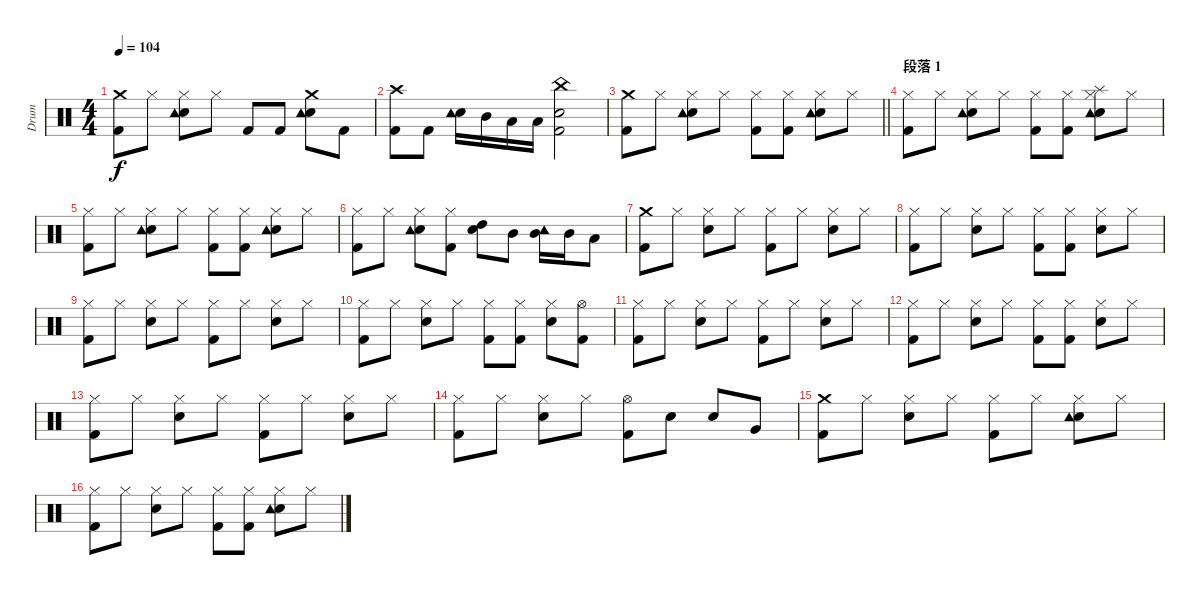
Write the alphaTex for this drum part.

\track ("Drum" "Drum") {instrument percussion}
\staff {score}
\articulation defaults
\ts (4 4)
\tempo 104
\clef neutral
\ks c
("Crash medium (hit)" "Kick (hit) 2").8{dy f} "Hi-Hat (closed)".8 ("Snare (hit) 2" "Hi-Hat (closed)" "Tambourine (hit)").8 "Hi-Hat (closed)".8 "Kick (hit) 2".8 "Kick (hit) 2".8 ("Snare (hit) 2" "Crash medium (hit)" "Tambourine (hit)").8 "Kick (hit) 2".8 |
("Crash high (hit)" "Kick (hit) 2").8 "Kick (hit) 2".8 ("Snare (hit) 2" "Tambourine (hit)").16 "Mid Tom (hit)".16 "Low Tom (hit)".16 "Low Tom (hit)".16 ("Snare (hit) 2" "China (hit)" "Kick (hit) 2").2 |
\barLineRight lightlight
("Crash medium (hit)" "Kick (hit) 2").8 "Hi-Hat (closed)".8 ("Snare (hit) 2" "Hi-Hat (closed)" "Tambourine (hit)").8 "Hi-Hat (closed)".8 ("Hi-Hat (closed)" "Kick (hit) 2").8 ("Hi-Hat (closed)" "Kick (hit) 2").8 ("Snare (hit) 2" "Hi-Hat (closed)" "Tambourine (hit)").8 "Hi-Hat (closed)".8 |
\section ("" "段落 1")
("Hi-Hat (closed)" "Kick (hit) 2").8 "Hi-Hat (closed)".8 ("Snare (hit) 2" "Hi-Hat (closed)" "Tambourine (hit)").8 "Hi-Hat (closed)".8 ("Hi-Hat (closed)" "Kick (hit) 2").8 ("Hi-Hat (closed)" "Kick (hit) 2").8 ("Snare (hit) 2" "Hi-Hat (closed)" "Tambourine (hit)" "Splash (hit)").8 "Hi-Hat (closed)".8 |
("Hi-Hat (closed)" "Kick (hit) 2").8 "Hi-Hat (closed)".8 ("Snare (hit) 2" "Hi-Hat (closed)" "Tambourine (hit)").8 "Hi-Hat (closed)".8 ("Hi-Hat (closed)" "Kick (hit) 2").8 ("Hi-Hat (closed)" "Kick (hit) 2").8 ("Snare (hit) 2" "Hi-Hat (closed)" "Tambourine (hit)").8 "Hi-Hat (closed)".8 |
("Hi-Hat (closed)" "Kick (hit) 2").8 "Hi-Hat (closed)".8 ("Snare (hit) 2" "Hi-Hat (closed)" "Tambourine (hit)").8 ("Hi-Hat (closed)" "Kick (hit) 2").8 ("High Tom (hit)" "Snare (hit) 2").8 "Mid Tom (hit)".8 ("Mid Tom (hit)" "Tambourine (hit)").16 "Mid Tom (hit)".16 "Low Tom (hit)".8 |
("Crash medium (hit)" "Kick (hit) 2").8 "Hi-Hat (closed)".8 ("Snare (hit) 2" "Hi-Hat (closed)").8 "Hi-Hat (closed)".8 ("Hi-Hat (closed)" "Kick (hit) 2").8 "Hi-Hat (closed)".8 ("Snare (hit) 2" "Hi-Hat (closed)").8 "Hi-Hat (closed)".8 |
("Hi-Hat (closed)" "Kick (hit) 2").8 "Hi-Hat (closed)".8 ("Snare (hit) 2" "Hi-Hat (closed)").8 "Hi-Hat (closed)".8 ("Hi-Hat (closed)" "Kick (hit) 2").8 ("Hi-Hat (closed)" "Kick (hit) 2").8 ("Snare (hit) 2" "Hi-Hat (closed)").8 "Hi-Hat (closed)".8 |
("Hi-Hat (closed)" "Kick (hit) 2").8 "Hi-Hat (closed)".8 ("Snare (hit) 2" "Hi-Hat (closed)").8 "Hi-Hat (closed)".8 ("Hi-Hat (closed)" "Kick (hit) 2").8 "Hi-Hat (closed)".8 ("Snare (hit) 2" "Hi-Hat (closed)").8 "Hi-Hat (closed)".8 |
("Hi-Hat (closed)" "Kick (hit) 2").8 "Hi-Hat (closed)".8 ("Snare (hit) 2" "Hi-Hat (closed)").8 "Hi-Hat (closed)".8 ("Hi-Hat (closed)" "Kick (hit) 2").8 ("Hi-Hat (closed)" "Kick (hit) 2").8 ("Snare (hit) 2" "Hi-Hat (closed)").8 ("Hi-Hat (open)" "Kick (hit) 2").8 |
("Hi-Hat (closed)" "Kick (hit) 2").8 "Hi-Hat (closed)".8 ("Snare (hit) 2" "Hi-Hat (closed)").8 "Hi-Hat (closed)".8 ("Hi-Hat (closed)" "Kick (hit) 2").8 "Hi-Hat (closed)".8 ("Snare (hit) 2" "Hi-Hat (closed)").8 "Hi-Hat (closed)".8 |
("Hi-Hat (closed)" "Kick (hit) 2").8 "Hi-Hat (closed)".8 ("Snare (hit) 2" "Hi-Hat (closed)").8 "Hi-Hat (closed)".8 ("Hi-Hat (closed)" "Kick (hit) 2").8 ("Hi-Hat (closed)" "Kick (hit) 2").8 ("Snare (hit) 2" "Hi-Hat (closed)").8 "Hi-Hat (closed)".8 |
("Hi-Hat (closed)" "Kick (hit) 2").8 "Hi-Hat (closed)".8 ("Snare (hit) 2" "Hi-Hat (closed)").8 "Hi-Hat (closed)".8 ("Hi-Hat (closed)" "Kick (hit) 2").8 "Hi-Hat (closed)".8 ("Snare (hit) 2" "Hi-Hat (closed)").8 "Hi-Hat (closed)".8 |
("Hi-Hat (closed)" "Kick (hit) 2").8 "Hi-Hat (closed)".8 ("Snare (hit) 2" "Hi-Hat (closed)").8 "Hi-Hat (closed)".8 ("Hi-Hat (open)" "Kick (hit) 2").8 "Snare (hit) 2".8 "Snare (hit) 2".8 "Very Low Tom (hit)".8 |
("Crash medium (hit)" "Kick (hit) 2").8 "Hi-Hat (closed)".8 ("Snare (hit) 2" "Hi-Hat (closed)").8 "Hi-Hat (closed)".8 ("Hi-Hat (closed)" "Kick (hit) 2").8 "Hi-Hat (closed)".8 ("Snare (hit) 2" "Hi-Hat (closed)" "Tambourine (hit)").8 "Hi-Hat (closed)".8 |
("Hi-Hat (closed)" "Kick (hit) 2").8 "Hi-Hat (closed)".8 ("Snare (hit) 2" "Hi-Hat (closed)").8 "Hi-Hat (closed)".8 ("Hi-Hat (closed)" "Kick (hit) 2").8 ("Hi-Hat (closed)" "Kick (hit) 2").8 ("Snare (hit) 2" "Hi-Hat (closed)" "Tambourine (hit)").8 "Hi-Hat (closed)".8
